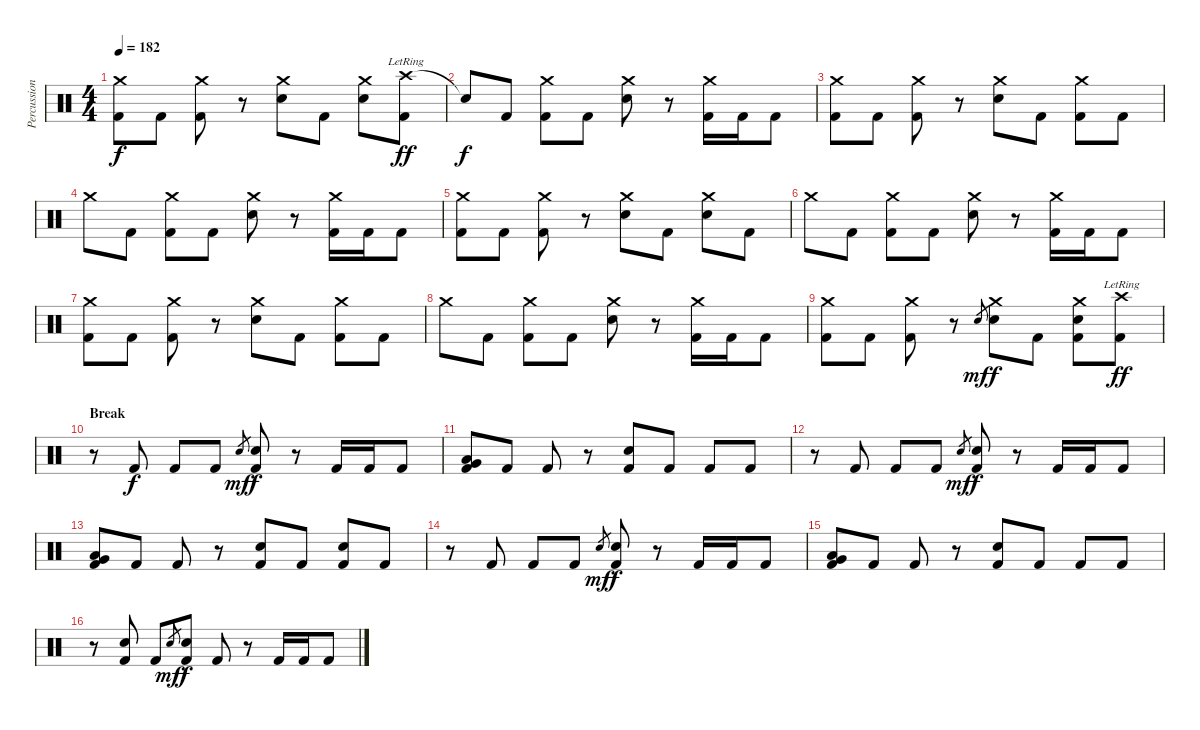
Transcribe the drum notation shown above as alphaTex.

\track ("Percussions" "Percussion") {instrument percussion}
\staff {score}
\articulation defaults
\ts (4 4)
\tempo 182
\clef neutral
\ks c
("Crash medium (hit)" "Kick (hit) 2").8{dy f} "Kick (hit) 2".8 ("Crash medium (hit)" "Kick (hit) 2").8 r.8 ("Crash medium (hit)" "Electric Snare (hit)").8 "Kick (hit) 2".8 ("Crash medium (hit)" "Electric Snare (hit)").8 ("Crash high (hit)"{lr} "Kick (hit) 2").8{dy ff} |
"Snare (hit)"{t}.8{dy f} "Kick (hit) 2".8 ("Crash medium (hit)" "Kick (hit) 2").8 "Kick (hit) 2".8 ("Crash medium (hit)" "Electric Snare (hit)").8 r.8 ("Crash medium (hit)" "Kick (hit) 2").16 "Kick (hit) 2".16 "Kick (hit) 2".8 |
("Crash medium (hit)" "Kick (hit) 2").8 "Kick (hit) 2".8 ("Crash medium (hit)" "Kick (hit) 2").8 r.8 ("Crash medium (hit)" "Electric Snare (hit)").8 "Kick (hit) 2".8 ("Crash medium (hit)" "Kick (hit) 2").8 "Kick (hit) 2".8 |
"Crash medium (hit)".8 "Kick (hit) 2".8 ("Crash medium (hit)" "Kick (hit) 2").8 "Kick (hit) 2".8 ("Crash medium (hit)" "Electric Snare (hit)").8 r.8 ("Crash medium (hit)" "Kick (hit) 2").16 "Kick (hit) 2".16 "Kick (hit) 2".8 |
("Crash medium (hit)" "Kick (hit) 2").8 "Kick (hit) 2".8 ("Crash medium (hit)" "Kick (hit) 2").8 r.8 ("Crash medium (hit)" "Electric Snare (hit)").8 "Kick (hit) 2".8 ("Crash medium (hit)" "Electric Snare (hit)").8 "Kick (hit) 2".8 |
"Crash medium (hit)".8 "Kick (hit) 2".8 ("Crash medium (hit)" "Kick (hit) 2").8 "Kick (hit) 2".8 ("Crash medium (hit)" "Electric Snare (hit)").8 r.8 ("Crash medium (hit)" "Kick (hit) 2").16 "Kick (hit) 2".16 "Kick (hit) 2".8 |
("Crash medium (hit)" "Kick (hit) 2").8 "Kick (hit) 2".8 ("Crash medium (hit)" "Kick (hit) 2").8 r.8 ("Crash medium (hit)" "Electric Snare (hit)").8 "Kick (hit) 2".8 ("Crash medium (hit)" "Kick (hit) 2").8 "Kick (hit) 2".8 |
"Crash medium (hit)".8 "Kick (hit) 2".8 ("Crash medium (hit)" "Kick (hit) 2").8 "Kick (hit) 2".8 ("Crash medium (hit)" "Electric Snare (hit)").8 r.8 ("Crash medium (hit)" "Kick (hit) 2").16 "Kick (hit) 2".16 "Kick (hit) 2".8 |
("Crash medium (hit)" "Kick (hit) 2").8 "Kick (hit) 2".8 ("Crash medium (hit)" "Kick (hit) 2").8 r.8 "Electric Snare (hit)".8{gr dy mf} ("Crash medium (hit)" "Electric Snare (hit)").8{dy f} "Kick (hit) 2".8 ("Crash medium (hit)" "Electric Snare (hit)" "Kick (hit) 2").8 ("Crash high (hit)"{lr} "Kick (hit) 2").8{dy ff} |
\section ("" "Break")
r.8 "Kick (hit) 2".8{dy f} "Kick (hit) 2".8 "Kick (hit) 2".8 "Electric Snare (hit)".8{gr dy mf} ("Electric Snare (hit)" "Kick (hit) 2").8{dy f} r.8 "Kick (hit) 2".16 "Kick (hit) 2".16 "Kick (hit) 2".8 |
("Low Tom (hit)" "Very Low Tom (hit)" "Kick (hit) 2").8 "Kick (hit) 2".8 "Kick (hit) 2".8 r.8 ("Electric Snare (hit)" "Kick (hit) 2").8 "Kick (hit) 2".8 "Kick (hit) 2".8 "Kick (hit) 2".8 |
r.8 "Kick (hit) 2".8 "Kick (hit) 2".8 "Kick (hit) 2".8 "Electric Snare (hit)".8{gr dy mf} ("Electric Snare (hit)" "Kick (hit) 2").8{dy f} r.8 "Kick (hit) 2".16 "Kick (hit) 2".16 "Kick (hit) 2".8 |
("Low Tom (hit)" "Very Low Tom (hit)" "Kick (hit) 2").8 "Kick (hit) 2".8 "Kick (hit) 2".8 r.8 ("Electric Snare (hit)" "Kick (hit) 2").8 "Kick (hit) 2".8 ("Electric Snare (hit)" "Kick (hit) 2").8 "Kick (hit) 2".8 |
r.8 "Kick (hit) 2".8 "Kick (hit) 2".8 "Kick (hit) 2".8 "Electric Snare (hit)".8{gr dy mf} ("Electric Snare (hit)" "Kick (hit) 2").8{dy f} r.8 "Kick (hit) 2".16 "Kick (hit) 2".16 "Kick (hit) 2".8 |
("Low Tom (hit)" "Very Low Tom (hit)" "Kick (hit) 2").8 "Kick (hit) 2".8 "Kick (hit) 2".8 r.8 ("Electric Snare (hit)" "Kick (hit) 2").8 "Kick (hit) 2".8 "Kick (hit) 2".8 "Kick (hit) 2".8 |
r.8 ("Electric Snare (hit)" "Kick (hit) 2").8 "Kick (hit) 2".8 "Electric Snare (hit)".8{gr dy mf} ("Electric Snare (hit)" "Kick (hit) 2").8{dy f} "Kick (hit) 2".8 r.8 "Kick (hit) 2".16 "Kick (hit) 2".16 "Kick (hit) 2".8
